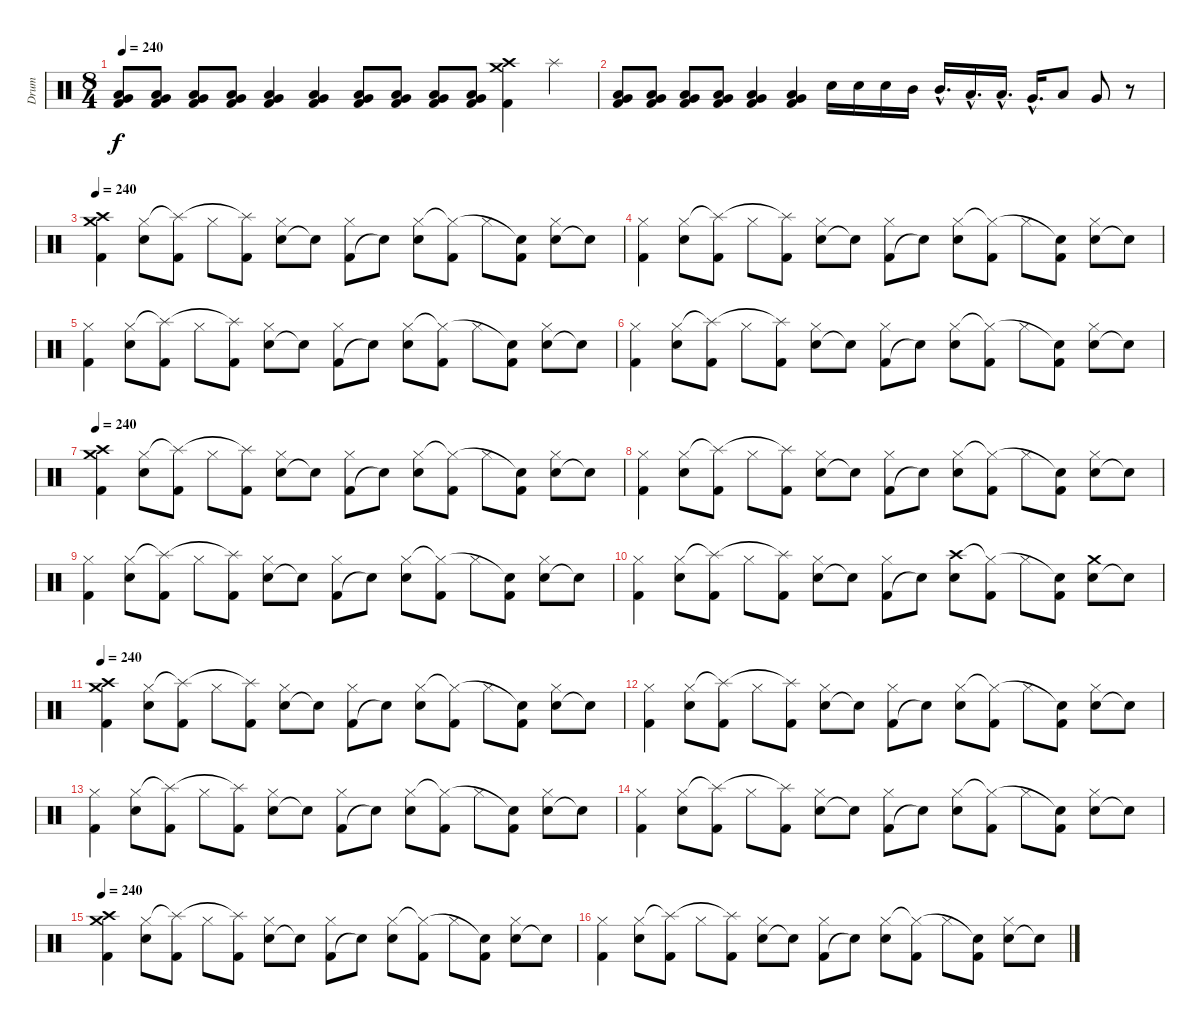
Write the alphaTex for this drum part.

\track ("Drum" "Drum") {instrument percussion}
\staff {score}
\articulation defaults
\ts (8 4)
\tempo 240
\clef neutral
\ks c
("Kick (hit) 2" "Low Floor Tom (hit)" "Very Low Tom (hit)").8{dy f} ("Kick (hit) 2" "Low Floor Tom (hit)" "Very Low Tom (hit)").8 ("Kick (hit) 2" "Low Floor Tom (hit)" "Very Low Tom (hit)").8 ("Kick (hit) 2" "Low Floor Tom (hit)" "Very Low Tom (hit)").8 ("Kick (hit) 2" "Low Floor Tom (hit)" "Very Low Tom (hit)").4 ("Kick (hit) 2" "Low Floor Tom (hit)" "Very Low Tom (hit)").4 ("Kick (hit) 2" "Low Floor Tom (hit)" "Very Low Tom (hit)").8 ("Kick (hit) 2" "Low Floor Tom (hit)" "Very Low Tom (hit)").8 ("Kick (hit) 2" "Low Floor Tom (hit)" "Very Low Tom (hit)").8 ("Kick (hit) 2" "Low Floor Tom (hit)" "Very Low Tom (hit)").8 ("Kick (hit) 2" "Crash high (hit)" "Crash medium (hit)").4 "Splash (hit)".4 |
("Kick (hit) 2" "Low Floor Tom (hit)" "Very Low Tom (hit)").8 ("Kick (hit) 2" "Low Floor Tom (hit)" "Very Low Tom (hit)").8 ("Kick (hit) 2" "Low Floor Tom (hit)" "Very Low Tom (hit)").8 ("Kick (hit) 2" "Low Floor Tom (hit)" "Very Low Tom (hit)").8 ("Kick (hit) 2" "Low Floor Tom (hit)" "Very Low Tom (hit)").4 ("Kick (hit) 2" "Low Floor Tom (hit)" "Very Low Tom (hit)").4 "Electric Snare (hit)".16 "Electric Snare (hit)".16 "Electric Snare (hit)".16 "Mid Tom (hit)".16 "Mid Tom (hit)"{hac}.16{d} "Low Tom (hit)"{hac}.16{d} "Low Tom (hit)"{hac}.16{d} "Very Low Tom (hit)"{hac}.16{d} "Low Floor Tom (hit)".8 "Very Low Tom (hit)".8 r.8 |
\section ("" "")
\tempo 240
("Kick (hit) 2" "Crash high (hit)" "Crash medium (hit)").4 ("Electric Snare (hit)" "Hi-Hat (closed)").8 ("Kick (hit) 2" "Splash (hit)"{t}).8 "Hi-Hat (closed)".8 ("Kick (hit) 2" "Splash (hit)"{t}).8 ("Electric Snare (hit)" "Hi-Hat (closed)").8 "Snare (hit)"{t}.8 ("Kick (hit) 2" "Hi-Hat (closed)").8 "Snare (hit)"{t}.8 ("Electric Snare (hit)" "Hi-Hat (closed)").8 ("Kick (hit) 2" "Hi-Hat (closed)"{t}).8 "Hi-Hat (closed)".8 ("Kick (hit) 2" "Snare (hit)"{t}).8 ("Electric Snare (hit)" "Hi-Hat (closed)").8 "Snare (hit)"{t}.8 |
("Kick (hit) 2" "Hi-Hat (closed)").4 ("Electric Snare (hit)" "Hi-Hat (closed)").8 ("Kick (hit) 2" "Splash (hit)"{t}).8 "Hi-Hat (closed)".8 ("Kick (hit) 2" "Splash (hit)"{t}).8 ("Electric Snare (hit)" "Hi-Hat (closed)").8 "Snare (hit)"{t}.8 ("Kick (hit) 2" "Hi-Hat (closed)").8 "Snare (hit)"{t}.8 ("Electric Snare (hit)" "Hi-Hat (closed)").8 ("Kick (hit) 2" "Hi-Hat (closed)"{t}).8 "Hi-Hat (closed)".8 ("Kick (hit) 2" "Snare (hit)"{t}).8 ("Electric Snare (hit)" "Hi-Hat (closed)").8 "Snare (hit)"{t}.8 |
("Kick (hit) 2" "Hi-Hat (closed)").4 ("Electric Snare (hit)" "Hi-Hat (closed)").8 ("Kick (hit) 2" "Splash (hit)"{t}).8 "Hi-Hat (closed)".8 ("Kick (hit) 2" "Splash (hit)"{t}).8 ("Electric Snare (hit)" "Hi-Hat (closed)").8 "Snare (hit)"{t}.8 ("Kick (hit) 2" "Hi-Hat (closed)").8 "Snare (hit)"{t}.8 ("Electric Snare (hit)" "Hi-Hat (closed)").8 ("Kick (hit) 2" "Hi-Hat (closed)"{t}).8 "Hi-Hat (closed)".8 ("Kick (hit) 2" "Snare (hit)"{t}).8 ("Electric Snare (hit)" "Hi-Hat (closed)").8 "Snare (hit)"{t}.8 |
("Kick (hit) 2" "Hi-Hat (closed)").4 ("Electric Snare (hit)" "Hi-Hat (closed)").8 ("Kick (hit) 2" "Splash (hit)"{t}).8 "Hi-Hat (closed)".8 ("Kick (hit) 2" "Splash (hit)"{t}).8 ("Electric Snare (hit)" "Hi-Hat (closed)").8 "Snare (hit)"{t}.8 ("Kick (hit) 2" "Hi-Hat (closed)").8 "Snare (hit)"{t}.8 ("Electric Snare (hit)" "Hi-Hat (closed)").8 ("Kick (hit) 2" "Hi-Hat (closed)"{t}).8 "Hi-Hat (closed)".8 ("Kick (hit) 2" "Snare (hit)"{t}).8 ("Electric Snare (hit)" "Hi-Hat (closed)").8 "Snare (hit)"{t}.8 |
\tempo 240
("Kick (hit) 2" "Crash high (hit)" "Crash medium (hit)").4 ("Electric Snare (hit)" "Hi-Hat (closed)").8 ("Kick (hit) 2" "Splash (hit)"{t}).8 "Hi-Hat (closed)".8 ("Kick (hit) 2" "Splash (hit)"{t}).8 ("Electric Snare (hit)" "Hi-Hat (closed)").8 "Snare (hit)"{t}.8 ("Kick (hit) 2" "Hi-Hat (closed)").8 "Snare (hit)"{t}.8 ("Electric Snare (hit)" "Hi-Hat (closed)").8 ("Kick (hit) 2" "Hi-Hat (closed)"{t}).8 "Hi-Hat (closed)".8 ("Kick (hit) 2" "Snare (hit)"{t}).8 ("Electric Snare (hit)" "Hi-Hat (closed)").8 "Snare (hit)"{t}.8 |
("Kick (hit) 2" "Hi-Hat (closed)").4 ("Electric Snare (hit)" "Hi-Hat (closed)").8 ("Kick (hit) 2" "Splash (hit)"{t}).8 "Hi-Hat (closed)".8 ("Kick (hit) 2" "Splash (hit)"{t}).8 ("Electric Snare (hit)" "Hi-Hat (closed)").8 "Snare (hit)"{t}.8 ("Kick (hit) 2" "Hi-Hat (closed)").8 "Snare (hit)"{t}.8 ("Electric Snare (hit)" "Hi-Hat (closed)").8 ("Kick (hit) 2" "Hi-Hat (closed)"{t}).8 "Hi-Hat (closed)".8 ("Kick (hit) 2" "Snare (hit)"{t}).8 ("Electric Snare (hit)" "Hi-Hat (closed)").8 "Snare (hit)"{t}.8 |
("Kick (hit) 2" "Hi-Hat (closed)").4 ("Electric Snare (hit)" "Hi-Hat (closed)").8 ("Kick (hit) 2" "Splash (hit)"{t}).8 "Hi-Hat (closed)".8 ("Kick (hit) 2" "Splash (hit)"{t}).8 ("Electric Snare (hit)" "Hi-Hat (closed)").8 "Snare (hit)"{t}.8 ("Kick (hit) 2" "Hi-Hat (closed)").8 "Snare (hit)"{t}.8 ("Electric Snare (hit)" "Hi-Hat (closed)").8 ("Kick (hit) 2" "Hi-Hat (closed)"{t}).8 "Hi-Hat (closed)".8 ("Kick (hit) 2" "Snare (hit)"{t}).8 ("Electric Snare (hit)" "Hi-Hat (closed)").8 "Snare (hit)"{t}.8 |
("Kick (hit) 2" "Hi-Hat (closed)").4 ("Electric Snare (hit)" "Hi-Hat (closed)").8 ("Kick (hit) 2" "Splash (hit)"{t}).8 "Hi-Hat (closed)".8 ("Kick (hit) 2" "Splash (hit)"{t}).8 ("Electric Snare (hit)" "Hi-Hat (closed)").8 "Snare (hit)"{t}.8 ("Kick (hit) 2" "Hi-Hat (closed)").8 "Snare (hit)"{t}.8 ("Electric Snare (hit)" "Crash high (hit)").8 ("Kick (hit) 2" "Hi-Hat (closed)"{t}).8 "Hi-Hat (closed)".8 ("Kick (hit) 2" "Snare (hit)"{t}).8 ("Electric Snare (hit)" "Crash medium (hit)").8 "Snare (hit)"{t}.8 |
\tempo 240
("Kick (hit) 2" "Crash high (hit)" "Crash medium (hit)").4 ("Electric Snare (hit)" "Hi-Hat (closed)").8 ("Kick (hit) 2" "Splash (hit)"{t}).8 "Hi-Hat (closed)".8 ("Kick (hit) 2" "Splash (hit)"{t}).8 ("Electric Snare (hit)" "Hi-Hat (closed)").8 "Snare (hit)"{t}.8 ("Kick (hit) 2" "Hi-Hat (closed)").8 "Snare (hit)"{t}.8 ("Electric Snare (hit)" "Hi-Hat (closed)").8 ("Kick (hit) 2" "Hi-Hat (closed)"{t}).8 "Hi-Hat (closed)".8 ("Kick (hit) 2" "Snare (hit)"{t}).8 ("Electric Snare (hit)" "Hi-Hat (closed)").8 "Snare (hit)"{t}.8 |
("Kick (hit) 2" "Hi-Hat (closed)").4 ("Electric Snare (hit)" "Hi-Hat (closed)").8 ("Kick (hit) 2" "Splash (hit)"{t}).8 "Hi-Hat (closed)".8 ("Kick (hit) 2" "Splash (hit)"{t}).8 ("Electric Snare (hit)" "Hi-Hat (closed)").8 "Snare (hit)"{t}.8 ("Kick (hit) 2" "Hi-Hat (closed)").8 "Snare (hit)"{t}.8 ("Electric Snare (hit)" "Hi-Hat (closed)").8 ("Kick (hit) 2" "Hi-Hat (closed)"{t}).8 "Hi-Hat (closed)".8 ("Kick (hit) 2" "Snare (hit)"{t}).8 ("Electric Snare (hit)" "Hi-Hat (closed)").8 "Snare (hit)"{t}.8 |
("Kick (hit) 2" "Hi-Hat (closed)").4 ("Electric Snare (hit)" "Hi-Hat (closed)").8 ("Kick (hit) 2" "Splash (hit)"{t}).8 "Hi-Hat (closed)".8 ("Kick (hit) 2" "Splash (hit)"{t}).8 ("Electric Snare (hit)" "Hi-Hat (closed)").8 "Snare (hit)"{t}.8 ("Kick (hit) 2" "Hi-Hat (closed)").8 "Snare (hit)"{t}.8 ("Electric Snare (hit)" "Hi-Hat (closed)").8 ("Kick (hit) 2" "Hi-Hat (closed)"{t}).8 "Hi-Hat (closed)".8 ("Kick (hit) 2" "Snare (hit)"{t}).8 ("Electric Snare (hit)" "Hi-Hat (closed)").8 "Snare (hit)"{t}.8 |
("Kick (hit) 2" "Hi-Hat (closed)").4 ("Electric Snare (hit)" "Hi-Hat (closed)").8 ("Kick (hit) 2" "Splash (hit)"{t}).8 "Hi-Hat (closed)".8 ("Kick (hit) 2" "Splash (hit)"{t}).8 ("Electric Snare (hit)" "Hi-Hat (closed)").8 "Snare (hit)"{t}.8 ("Kick (hit) 2" "Hi-Hat (closed)").8 "Snare (hit)"{t}.8 ("Electric Snare (hit)" "Hi-Hat (closed)").8 ("Kick (hit) 2" "Hi-Hat (closed)"{t}).8 "Hi-Hat (closed)".8 ("Kick (hit) 2" "Snare (hit)"{t}).8 ("Electric Snare (hit)" "Hi-Hat (closed)").8 "Snare (hit)"{t}.8 |
\tempo 240
("Kick (hit) 2" "Crash high (hit)" "Crash medium (hit)").4 ("Electric Snare (hit)" "Hi-Hat (closed)").8 ("Kick (hit) 2" "Splash (hit)"{t}).8 "Hi-Hat (closed)".8 ("Kick (hit) 2" "Splash (hit)"{t}).8 ("Electric Snare (hit)" "Hi-Hat (closed)").8 "Snare (hit)"{t}.8 ("Kick (hit) 2" "Hi-Hat (closed)").8 "Snare (hit)"{t}.8 ("Electric Snare (hit)" "Hi-Hat (closed)").8 ("Kick (hit) 2" "Hi-Hat (closed)"{t}).8 "Hi-Hat (closed)".8 ("Kick (hit) 2" "Snare (hit)"{t}).8 ("Electric Snare (hit)" "Hi-Hat (closed)").8 "Snare (hit)"{t}.8 |
("Kick (hit) 2" "Hi-Hat (closed)").4 ("Electric Snare (hit)" "Hi-Hat (closed)").8 ("Kick (hit) 2" "Splash (hit)"{t}).8 "Hi-Hat (closed)".8 ("Kick (hit) 2" "Splash (hit)"{t}).8 ("Electric Snare (hit)" "Hi-Hat (closed)").8 "Snare (hit)"{t}.8 ("Kick (hit) 2" "Hi-Hat (closed)").8 "Snare (hit)"{t}.8 ("Electric Snare (hit)" "Hi-Hat (closed)").8 ("Kick (hit) 2" "Hi-Hat (closed)"{t}).8 "Hi-Hat (closed)".8 ("Kick (hit) 2" "Snare (hit)"{t}).8 ("Electric Snare (hit)" "Hi-Hat (closed)").8 "Snare (hit)"{t}.8
